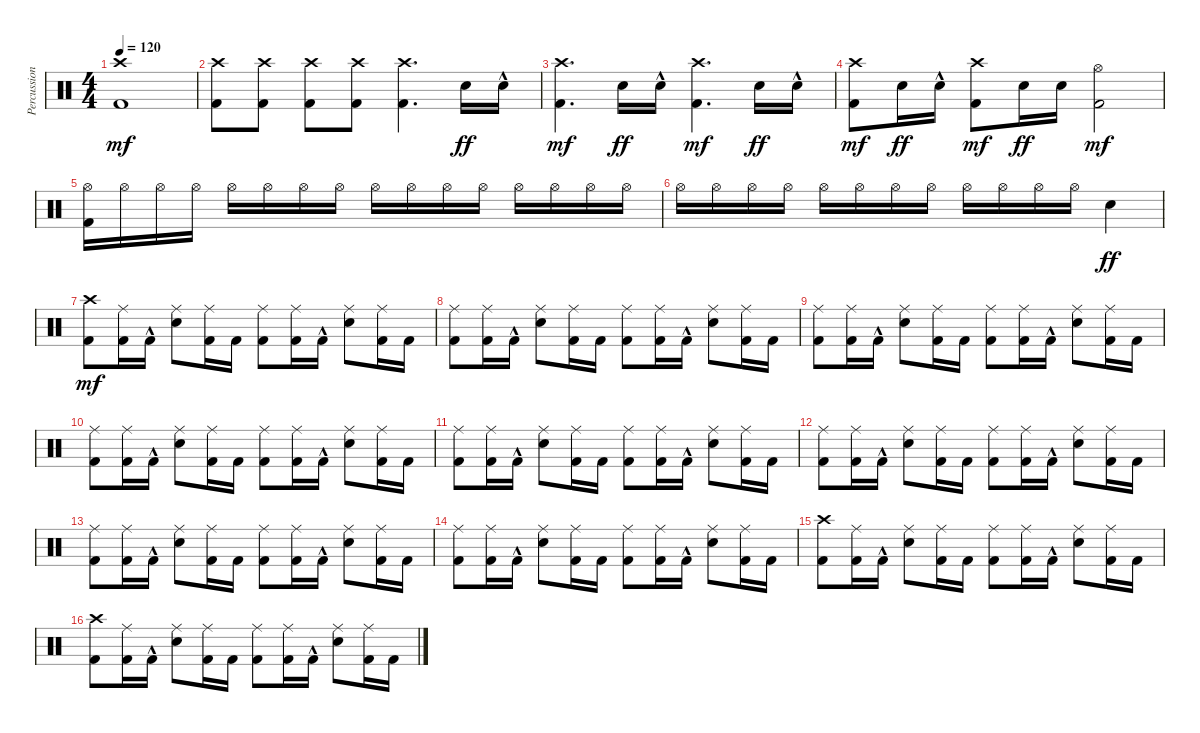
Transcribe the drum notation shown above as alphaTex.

\track ("Percussioni" "Percussion") {instrument percussion}
\staff {score}
\articulation defaults
\ts (4 4)
\tempo 120
\clef neutral
\ks c
("Kick (hit) 2" "Crash high (hit)").1{dy mf} |
("Kick (hit) 2" "Crash high (hit)").8 ("Kick (hit) 2" "Crash high (hit)").8 ("Kick (hit) 2" "Crash high (hit)").8 ("Kick (hit) 2" "Crash high (hit)").8 ("Kick (hit) 2" "Crash high (hit)").4{d} "Snare (hit) 2".16{dy ff} "Snare (hit) 2"{hac}.16 |
("Kick (hit) 2" "Crash high (hit)").4{d dy mf} "Snare (hit) 2".16{dy ff} "Snare (hit) 2"{hac}.16 ("Kick (hit) 2" "Crash high (hit)").4{d dy mf} "Snare (hit) 2".16{dy ff} "Snare (hit) 2"{hac}.16 |
("Kick (hit) 2" "Crash high (hit)").8{dy mf} "Snare (hit) 2".16{dy ff} "Snare (hit) 2"{hac}.16 ("Kick (hit) 2" "Crash high (hit)").8{dy mf} "Snare (hit) 2".16{dy ff} "Snare (hit) 2".16 ("Kick (hit) 2" "Hi-Hat (open)").2{dy mf} |
("Kick (hit) 2" "Hi-Hat (open)").16 "Hi-Hat (open)".16 "Hi-Hat (open)".16 "Hi-Hat (open)".16 "Hi-Hat (open)".16 "Hi-Hat (open)".16 "Hi-Hat (open)".16 "Hi-Hat (open)".16 "Hi-Hat (open)".16 "Hi-Hat (open)".16 "Hi-Hat (open)".16 "Hi-Hat (open)".16 "Hi-Hat (open)".16 "Hi-Hat (open)".16 "Hi-Hat (open)".16 "Hi-Hat (open)".16 |
"Hi-Hat (open)".16 "Hi-Hat (open)".16 "Hi-Hat (open)".16 "Hi-Hat (open)".16 "Hi-Hat (open)".16 "Hi-Hat (open)".16 "Hi-Hat (open)".16 "Hi-Hat (open)".16 "Hi-Hat (open)".16 "Hi-Hat (open)".16 "Hi-Hat (open)".16 "Hi-Hat (open)".16 "Snare (hit) 2".4{dy ff} |
("Kick (hit) 2" "Crash high (hit)").8{dy mf} ("Kick (hit) 2" "Ride (middle)").16 "Kick (hit) 2"{hac}.16 ("Snare (hit) 2" "Ride (middle)").8 ("Kick (hit) 2" "Ride (middle)").16 "Kick (hit) 2".16 ("Kick (hit) 2" "Ride (middle)").8 ("Kick (hit) 2" "Ride (middle)").16 "Kick (hit) 2"{hac}.16 ("Snare (hit) 2" "Ride (middle)").8 ("Kick (hit) 2" "Ride (middle)").16 "Kick (hit) 2".16 |
("Kick (hit) 2" "Ride (middle)").8 ("Kick (hit) 2" "Ride (middle)").16 "Kick (hit) 2"{hac}.16 ("Snare (hit) 2" "Ride (middle)").8 ("Kick (hit) 2" "Ride (middle)").16 "Kick (hit) 2".16 ("Kick (hit) 2" "Ride (middle)").8 ("Kick (hit) 2" "Ride (middle)").16 "Kick (hit) 2"{hac}.16 ("Snare (hit) 2" "Ride (middle)").8 ("Kick (hit) 2" "Ride (middle)").16 "Kick (hit) 2".16 |
("Kick (hit) 2" "Ride (middle)").8 ("Kick (hit) 2" "Ride (middle)").16 "Kick (hit) 2"{hac}.16 ("Snare (hit) 2" "Ride (middle)").8 ("Kick (hit) 2" "Ride (middle)").16 "Kick (hit) 2".16 ("Kick (hit) 2" "Ride (middle)").8 ("Kick (hit) 2" "Ride (middle)").16 "Kick (hit) 2"{hac}.16 ("Snare (hit) 2" "Ride (middle)").8 ("Kick (hit) 2" "Ride (middle)").16 "Kick (hit) 2".16 |
("Kick (hit) 2" "Ride (middle)").8 ("Kick (hit) 2" "Ride (middle)").16 "Kick (hit) 2"{hac}.16 ("Snare (hit) 2" "Ride (middle)").8 ("Kick (hit) 2" "Ride (middle)").16 "Kick (hit) 2".16 ("Kick (hit) 2" "Ride (middle)").8 ("Kick (hit) 2" "Ride (middle)").16 "Kick (hit) 2"{hac}.16 ("Snare (hit) 2" "Ride (middle)").8 ("Kick (hit) 2" "Ride (middle)").16 "Kick (hit) 2".16 |
("Kick (hit) 2" "Ride (middle)").8 ("Kick (hit) 2" "Ride (middle)").16 "Kick (hit) 2"{hac}.16 ("Snare (hit) 2" "Ride (middle)").8 ("Kick (hit) 2" "Ride (middle)").16 "Kick (hit) 2".16 ("Kick (hit) 2" "Ride (middle)").8 ("Kick (hit) 2" "Ride (middle)").16 "Kick (hit) 2"{hac}.16 ("Snare (hit) 2" "Ride (middle)").8 ("Kick (hit) 2" "Ride (middle)").16 "Kick (hit) 2".16 |
("Kick (hit) 2" "Ride (middle)").8 ("Kick (hit) 2" "Ride (middle)").16 "Kick (hit) 2"{hac}.16 ("Snare (hit) 2" "Ride (middle)").8 ("Kick (hit) 2" "Ride (middle)").16 "Kick (hit) 2".16 ("Kick (hit) 2" "Ride (middle)").8 ("Kick (hit) 2" "Ride (middle)").16 "Kick (hit) 2"{hac}.16 ("Snare (hit) 2" "Ride (middle)").8 ("Kick (hit) 2" "Ride (middle)").16 "Kick (hit) 2".16 |
("Kick (hit) 2" "Ride (middle)").8 ("Kick (hit) 2" "Ride (middle)").16 "Kick (hit) 2"{hac}.16 ("Snare (hit) 2" "Ride (middle)").8 ("Kick (hit) 2" "Ride (middle)").16 "Kick (hit) 2".16 ("Kick (hit) 2" "Ride (middle)").8 ("Kick (hit) 2" "Ride (middle)").16 "Kick (hit) 2"{hac}.16 ("Snare (hit) 2" "Ride (middle)").8 ("Kick (hit) 2" "Ride (middle)").16 "Kick (hit) 2".16 |
("Kick (hit) 2" "Ride (middle)").8 ("Kick (hit) 2" "Ride (middle)").16 "Kick (hit) 2"{hac}.16 ("Snare (hit) 2" "Ride (middle)").8 ("Kick (hit) 2" "Ride (middle)").16 "Kick (hit) 2".16 ("Kick (hit) 2" "Ride (middle)").8 ("Kick (hit) 2" "Ride (middle)").16 "Kick (hit) 2"{hac}.16 ("Snare (hit) 2" "Ride (middle)").8 ("Kick (hit) 2" "Ride (middle)").16 "Kick (hit) 2".16 |
("Kick (hit) 2" "Crash high (hit)").8 ("Kick (hit) 2" "Ride (middle)").16 "Kick (hit) 2"{hac}.16 ("Snare (hit) 2" "Ride (middle)").8 ("Kick (hit) 2" "Ride (middle)").16 "Kick (hit) 2".16 ("Kick (hit) 2" "Ride (middle)").8 ("Kick (hit) 2" "Ride (middle)").16 "Kick (hit) 2"{hac}.16 ("Snare (hit) 2" "Ride (middle)").8 ("Kick (hit) 2" "Ride (middle)").16 "Kick (hit) 2".16 |
("Kick (hit) 2" "Crash high (hit)").8 ("Kick (hit) 2" "Ride (middle)").16 "Kick (hit) 2"{hac}.16 ("Snare (hit) 2" "Ride (middle)").8 ("Kick (hit) 2" "Ride (middle)").16 "Kick (hit) 2".16 ("Kick (hit) 2" "Ride (middle)").8 ("Kick (hit) 2" "Ride (middle)").16 "Kick (hit) 2"{hac}.16 ("Snare (hit) 2" "Ride (middle)").8 ("Kick (hit) 2" "Ride (middle)").16 "Kick (hit) 2".16
